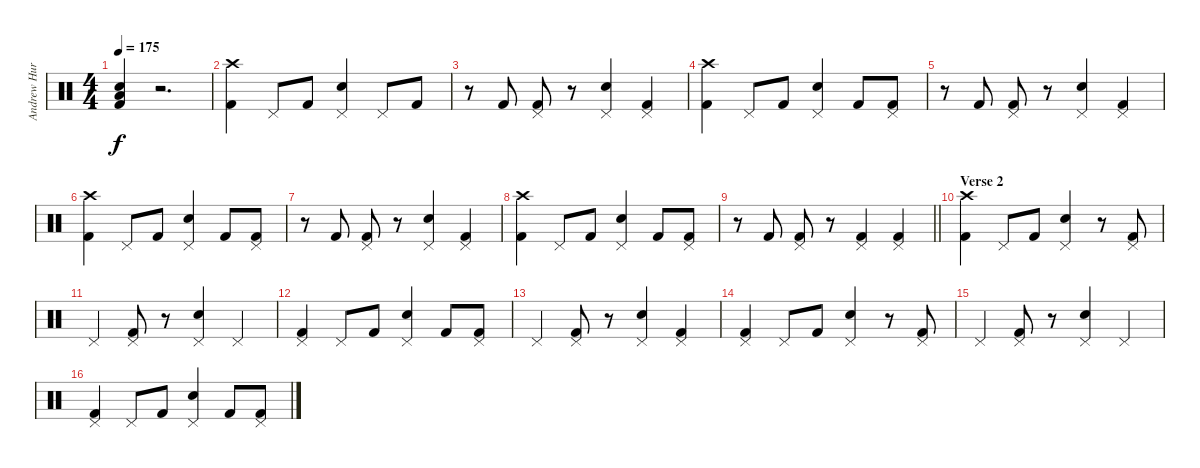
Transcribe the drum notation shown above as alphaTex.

\track ("Andrew Hurley (Drums)" "Andrew Hur") {instrument percussion}
\staff {score}
\articulation defaults
\ts (4 4)
\tempo 175
\clef neutral
\ks c
("Snare (hit) 2" "Low Floor Tom (hit)" "Kick (hit) 2").4{dy f} r.2{d} |
("Crash high (hit)" "Kick (hit) 2").4 "Pedal Hi-Hat (hit)".8 "Kick (hit) 2".8 ("Pedal Hi-Hat (hit)" "Snare (hit) 2").4 "Pedal Hi-Hat (hit)".8 "Kick (hit) 2".8 |
r.8 "Kick (hit) 2".8 ("Pedal Hi-Hat (hit)" "Kick (hit) 2").8 r.8 ("Pedal Hi-Hat (hit)" "Snare (hit) 2").4 ("Pedal Hi-Hat (hit)" "Kick (hit) 2").4 |
("Crash high (hit)" "Kick (hit) 2").4 "Pedal Hi-Hat (hit)".8 "Kick (hit) 2".8 ("Pedal Hi-Hat (hit)" "Snare (hit) 2").4 "Kick (hit) 2".8 ("Pedal Hi-Hat (hit)" "Kick (hit) 2").8 |
r.8 "Kick (hit) 2".8 ("Pedal Hi-Hat (hit)" "Kick (hit) 2").8 r.8 ("Pedal Hi-Hat (hit)" "Snare (hit) 2").4 ("Pedal Hi-Hat (hit)" "Kick (hit) 2").4 |
("Crash high (hit)" "Kick (hit) 2").4 "Pedal Hi-Hat (hit)".8 "Kick (hit) 2".8 ("Pedal Hi-Hat (hit)" "Snare (hit) 2").4 "Kick (hit) 2".8 ("Pedal Hi-Hat (hit)" "Kick (hit) 2").8 |
r.8 "Kick (hit) 2".8 ("Pedal Hi-Hat (hit)" "Kick (hit) 2").8 r.8 ("Pedal Hi-Hat (hit)" "Snare (hit) 2").4 ("Pedal Hi-Hat (hit)" "Kick (hit) 2").4 |
("Crash high (hit)" "Kick (hit) 2").4 "Pedal Hi-Hat (hit)".8 "Kick (hit) 2".8 ("Pedal Hi-Hat (hit)" "Snare (hit) 2").4 "Kick (hit) 2".8 ("Pedal Hi-Hat (hit)" "Kick (hit) 2").8 |
\barLineRight lightlight
r.8 "Kick (hit) 2".8 ("Pedal Hi-Hat (hit)" "Kick (hit) 2").8 r.8 ("Pedal Hi-Hat (hit)" "Kick (hit) 2").4 ("Pedal Hi-Hat (hit)" "Kick (hit) 2").4 |
\section ("" "Verse 2")
("Crash high (hit)" "Kick (hit) 2").4 "Pedal Hi-Hat (hit)".8 "Kick (hit) 2".8 ("Pedal Hi-Hat (hit)" "Snare (hit) 2").4 r.8 ("Pedal Hi-Hat (hit)" "Kick (hit) 2").8 |
"Pedal Hi-Hat (hit)".4 ("Pedal Hi-Hat (hit)" "Kick (hit) 2").8 r.8 ("Pedal Hi-Hat (hit)" "Snare (hit) 2").4 "Pedal Hi-Hat (hit)".4 |
("Pedal Hi-Hat (hit)" "Kick (hit) 2").4 "Pedal Hi-Hat (hit)".8 "Kick (hit) 2".8 ("Pedal Hi-Hat (hit)" "Snare (hit) 2").4 "Kick (hit) 2".8 ("Pedal Hi-Hat (hit)" "Kick (hit) 2").8 |
"Pedal Hi-Hat (hit)".4 ("Pedal Hi-Hat (hit)" "Kick (hit) 2").8 r.8 ("Pedal Hi-Hat (hit)" "Snare (hit) 2").4 ("Pedal Hi-Hat (hit)" "Kick (hit) 2").4 |
("Pedal Hi-Hat (hit)" "Kick (hit) 2").4 "Pedal Hi-Hat (hit)".8 "Kick (hit) 2".8 ("Pedal Hi-Hat (hit)" "Snare (hit) 2").4 r.8 ("Pedal Hi-Hat (hit)" "Kick (hit) 2").8 |
"Pedal Hi-Hat (hit)".4 ("Pedal Hi-Hat (hit)" "Kick (hit) 2").8 r.8 ("Pedal Hi-Hat (hit)" "Snare (hit) 2").4 "Pedal Hi-Hat (hit)".4 |
("Pedal Hi-Hat (hit)" "Kick (hit) 2").4 "Pedal Hi-Hat (hit)".8 "Kick (hit) 2".8 ("Pedal Hi-Hat (hit)" "Snare (hit) 2").4 "Kick (hit) 2".8 ("Pedal Hi-Hat (hit)" "Kick (hit) 2").8
